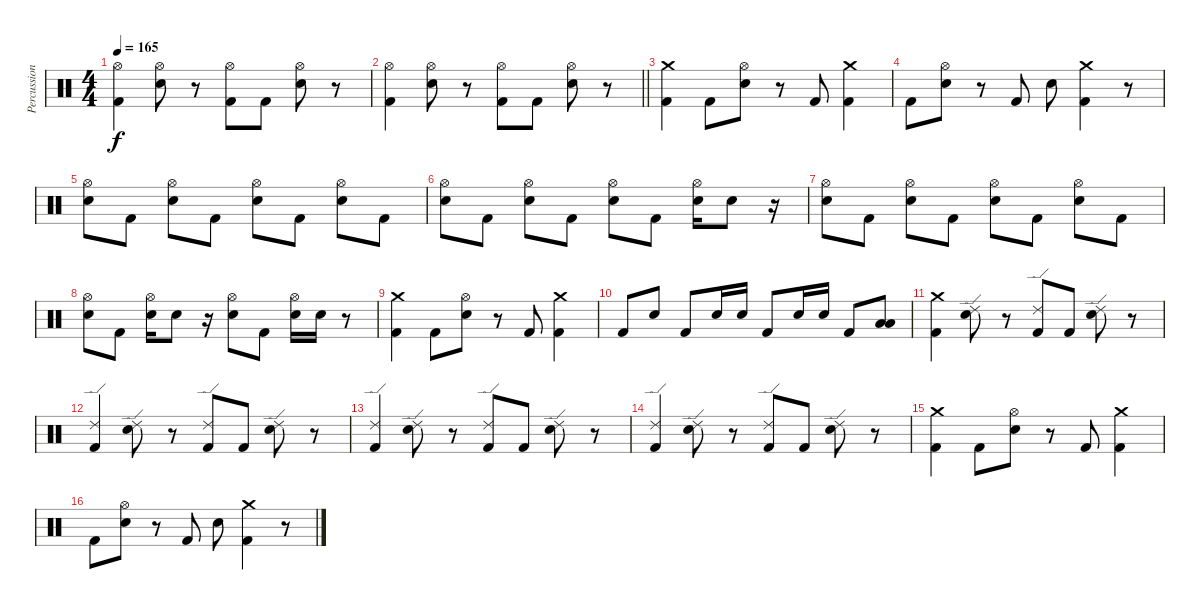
\track ("Percussion" "Percussion") {instrument percussion}
\staff {score}
\articulation defaults
\ts (4 4)
\tempo 165
\clef neutral
\ks c
("Hi-Hat (open)" "Kick (hit) 2").4{dy f} ("Hi-Hat (open)" "Electric Snare (hit)").8 r.8 ("Hi-Hat (open)" "Kick (hit) 2").8 "Kick (hit) 2".8 ("Hi-Hat (open)" "Electric Snare (hit)").8 r.8 |
\barLineRight lightlight
("Hi-Hat (open)" "Kick (hit) 2").4 ("Hi-Hat (open)" "Electric Snare (hit)").8 r.8 ("Hi-Hat (open)" "Kick (hit) 2").8 "Kick (hit) 2".8 ("Hi-Hat (open)" "Electric Snare (hit)").8 r.8 |
("Crash medium (hit)" "Kick (hit) 2").4 "Kick (hit) 2".8 ("Hi-Hat (open)" "Electric Snare (hit)").8 r.8 "Kick (hit) 2".8 ("Crash medium (hit)" "Kick (hit) 2").4 |
"Kick (hit) 2".8 ("Hi-Hat (open)" "Electric Snare (hit)").8 r.8 "Kick (hit) 2".8 "Electric Snare (hit)".8 ("Crash medium (hit)" "Kick (hit) 2").4 r.8 |
("Hi-Hat (open)" "Electric Snare (hit)").8 "Kick (hit) 2".8 ("Hi-Hat (open)" "Electric Snare (hit)").8 "Kick (hit) 2".8 ("Hi-Hat (open)" "Electric Snare (hit)").8 "Kick (hit) 2".8 ("Hi-Hat (open)" "Electric Snare (hit)").8 "Kick (hit) 2".8 |
("Hi-Hat (open)" "Electric Snare (hit)").8 "Kick (hit) 2".8 ("Hi-Hat (open)" "Electric Snare (hit)").8 "Kick (hit) 2".8 ("Hi-Hat (open)" "Electric Snare (hit)").8 "Kick (hit) 2".8 ("Hi-Hat (open)" "Electric Snare (hit)").16 "Electric Snare (hit)".8 r.16 |
("Hi-Hat (open)" "Electric Snare (hit)").8 "Kick (hit) 2".8 ("Hi-Hat (open)" "Electric Snare (hit)").8 "Kick (hit) 2".8 ("Hi-Hat (open)" "Electric Snare (hit)").8 "Kick (hit) 2".8 ("Hi-Hat (open)" "Electric Snare (hit)").8 "Kick (hit) 2".8 |
("Hi-Hat (open)" "Electric Snare (hit)").8 "Kick (hit) 2".8 ("Hi-Hat (open)" "Electric Snare (hit)").16 "Electric Snare (hit)".8 r.16 ("Hi-Hat (open)" "Electric Snare (hit)").8 "Kick (hit) 2".8 ("Hi-Hat (open)" "Electric Snare (hit)").16 "Electric Snare (hit)".16 r.8 |
("Crash medium (hit)" "Kick (hit) 2").4 "Kick (hit) 2".8 ("Hi-Hat (open)" "Electric Snare (hit)").8 r.8 "Kick (hit) 2".8 ("Crash medium (hit)" "Kick (hit) 2").4 |
"Kick (hit) 2".8 "Electric Snare (hit)".8 "Kick (hit) 2".8 "Electric Snare (hit)".16 "Electric Snare (hit)".16 "Kick (hit) 2".8 "Electric Snare (hit)".16 "Electric Snare (hit)".16 "Kick (hit) 2".8 ("Low Tom (hit)" "Low Tom (hit)").8 |
("Crash medium (hit)" "Kick (hit) 2").4 ("Ride (edge) 2" "Electric Snare (hit)").8 r.8 ("Ride (edge) 2" "Kick (hit) 2").8 "Kick (hit) 2".8 ("Ride (edge) 2" "Electric Snare (hit)").8 r.8 |
("Ride (edge) 2" "Kick (hit) 2").4 ("Ride (edge) 2" "Electric Snare (hit)").8 r.8 ("Ride (edge) 2" "Kick (hit) 2").8 "Kick (hit) 2".8 ("Ride (edge) 2" "Electric Snare (hit)").8 r.8 |
("Ride (edge) 2" "Kick (hit) 2").4 ("Ride (edge) 2" "Electric Snare (hit)").8 r.8 ("Ride (edge) 2" "Kick (hit) 2").8 "Kick (hit) 2".8 ("Ride (edge) 2" "Electric Snare (hit)").8 r.8 |
("Ride (edge) 2" "Kick (hit) 2").4 ("Ride (edge) 2" "Electric Snare (hit)").8 r.8 ("Ride (edge) 2" "Kick (hit) 2").8 "Kick (hit) 2".8 ("Ride (edge) 2" "Electric Snare (hit)").8 r.8 |
("Crash medium (hit)" "Kick (hit) 2").4 "Kick (hit) 2".8 ("Hi-Hat (open)" "Electric Snare (hit)").8 r.8 "Kick (hit) 2".8 ("Crash medium (hit)" "Kick (hit) 2").4 |
"Kick (hit) 2".8 ("Hi-Hat (open)" "Electric Snare (hit)").8 r.8 "Kick (hit) 2".8 "Electric Snare (hit)".8 ("Crash medium (hit)" "Kick (hit) 2").4 r.8
